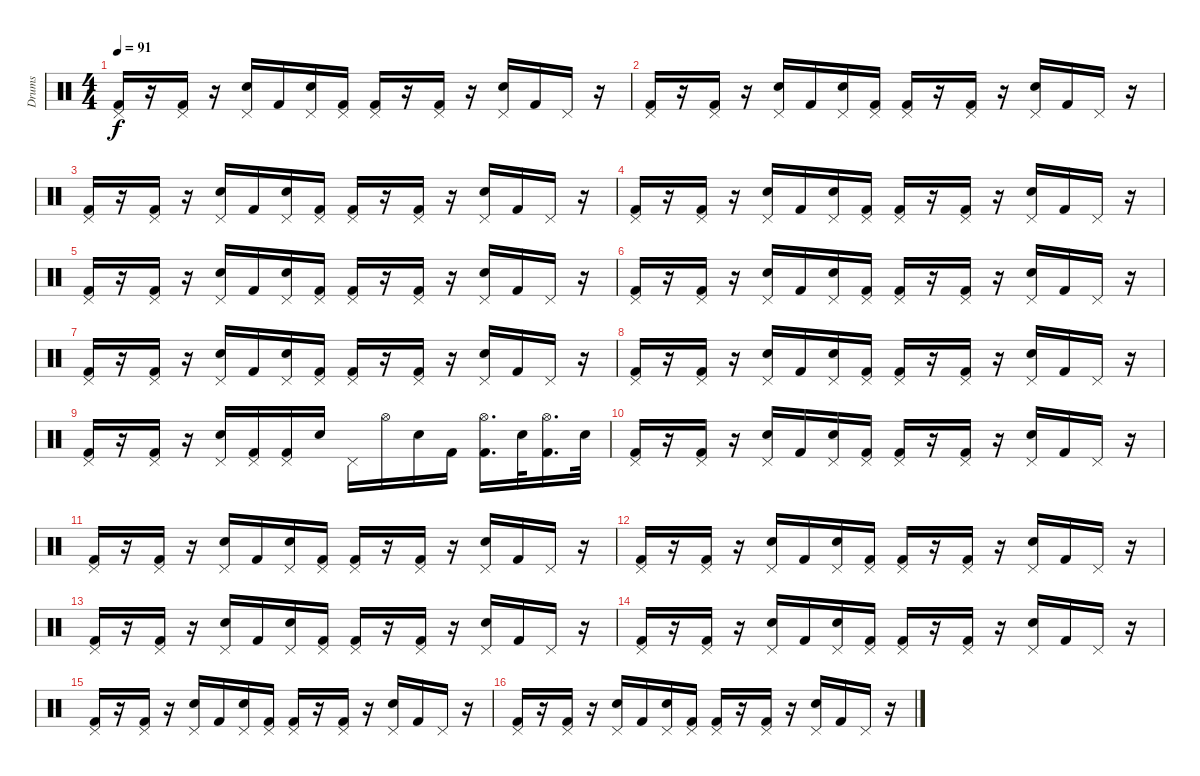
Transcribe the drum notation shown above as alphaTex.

\track ("Drums" "Drums") {instrument percussion}
\staff {score}
\articulation defaults
\ts (4 4)
\tempo 91
\clef neutral
\ks c
("Pedal Hi-Hat (hit)" "Kick (hit) 2").16{dy f} r.16 ("Pedal Hi-Hat (hit)" "Kick (hit) 2").16 r.16 ("Pedal Hi-Hat (hit)" "Snare (hit) 2").16 "Kick (hit) 2".16 ("Pedal Hi-Hat (hit)" "Snare (hit) 2").16 ("Pedal Hi-Hat (hit)" "Kick (hit) 2").16 ("Pedal Hi-Hat (hit)" "Kick (hit) 2").16 r.16 ("Pedal Hi-Hat (hit)" "Kick (hit) 2").16 r.16 ("Pedal Hi-Hat (hit)" "Snare (hit) 2").16 "Kick (hit) 2".16 "Pedal Hi-Hat (hit)".16 r.16 |
("Pedal Hi-Hat (hit)" "Kick (hit) 2").16 r.16 ("Pedal Hi-Hat (hit)" "Kick (hit) 2").16 r.16 ("Pedal Hi-Hat (hit)" "Snare (hit) 2").16 "Kick (hit) 2".16 ("Pedal Hi-Hat (hit)" "Snare (hit) 2").16 ("Pedal Hi-Hat (hit)" "Kick (hit) 2").16 ("Pedal Hi-Hat (hit)" "Kick (hit) 2").16 r.16 ("Pedal Hi-Hat (hit)" "Kick (hit) 2").16 r.16 ("Pedal Hi-Hat (hit)" "Snare (hit) 2").16 "Kick (hit) 2".16 "Pedal Hi-Hat (hit)".16 r.16 |
("Pedal Hi-Hat (hit)" "Kick (hit) 2").16 r.16 ("Pedal Hi-Hat (hit)" "Kick (hit) 2").16 r.16 ("Pedal Hi-Hat (hit)" "Snare (hit) 2").16 "Kick (hit) 2".16 ("Pedal Hi-Hat (hit)" "Snare (hit) 2").16 ("Pedal Hi-Hat (hit)" "Kick (hit) 2").16 ("Pedal Hi-Hat (hit)" "Kick (hit) 2").16 r.16 ("Pedal Hi-Hat (hit)" "Kick (hit) 2").16 r.16 ("Pedal Hi-Hat (hit)" "Snare (hit) 2").16 "Kick (hit) 2".16 "Pedal Hi-Hat (hit)".16 r.16 |
("Pedal Hi-Hat (hit)" "Kick (hit) 2").16 r.16 ("Pedal Hi-Hat (hit)" "Kick (hit) 2").16 r.16 ("Pedal Hi-Hat (hit)" "Snare (hit) 2").16 "Kick (hit) 2".16 ("Pedal Hi-Hat (hit)" "Snare (hit) 2").16 ("Pedal Hi-Hat (hit)" "Kick (hit) 2").16 ("Pedal Hi-Hat (hit)" "Kick (hit) 2").16 r.16 ("Pedal Hi-Hat (hit)" "Kick (hit) 2").16 r.16 ("Pedal Hi-Hat (hit)" "Snare (hit) 2").16 "Kick (hit) 2".16 "Pedal Hi-Hat (hit)".16 r.16 |
("Pedal Hi-Hat (hit)" "Kick (hit) 2").16 r.16 ("Pedal Hi-Hat (hit)" "Kick (hit) 2").16 r.16 ("Pedal Hi-Hat (hit)" "Snare (hit) 2").16 "Kick (hit) 2".16 ("Pedal Hi-Hat (hit)" "Snare (hit) 2").16 ("Pedal Hi-Hat (hit)" "Kick (hit) 2").16 ("Pedal Hi-Hat (hit)" "Kick (hit) 2").16 r.16 ("Pedal Hi-Hat (hit)" "Kick (hit) 2").16 r.16 ("Pedal Hi-Hat (hit)" "Snare (hit) 2").16 "Kick (hit) 2".16 "Pedal Hi-Hat (hit)".16 r.16 |
("Pedal Hi-Hat (hit)" "Kick (hit) 2").16 r.16 ("Pedal Hi-Hat (hit)" "Kick (hit) 2").16 r.16 ("Pedal Hi-Hat (hit)" "Snare (hit) 2").16 "Kick (hit) 2".16 ("Pedal Hi-Hat (hit)" "Snare (hit) 2").16 ("Pedal Hi-Hat (hit)" "Kick (hit) 2").16 ("Pedal Hi-Hat (hit)" "Kick (hit) 2").16 r.16 ("Pedal Hi-Hat (hit)" "Kick (hit) 2").16 r.16 ("Pedal Hi-Hat (hit)" "Snare (hit) 2").16 "Kick (hit) 2".16 "Pedal Hi-Hat (hit)".16 r.16 |
("Pedal Hi-Hat (hit)" "Kick (hit) 2").16 r.16 ("Pedal Hi-Hat (hit)" "Kick (hit) 2").16 r.16 ("Pedal Hi-Hat (hit)" "Snare (hit) 2").16 "Kick (hit) 2".16 ("Pedal Hi-Hat (hit)" "Snare (hit) 2").16 ("Pedal Hi-Hat (hit)" "Kick (hit) 2").16 ("Pedal Hi-Hat (hit)" "Kick (hit) 2").16 r.16 ("Pedal Hi-Hat (hit)" "Kick (hit) 2").16 r.16 ("Pedal Hi-Hat (hit)" "Snare (hit) 2").16 "Kick (hit) 2".16 "Pedal Hi-Hat (hit)".16 r.16 |
("Pedal Hi-Hat (hit)" "Kick (hit) 2").16 r.16 ("Pedal Hi-Hat (hit)" "Kick (hit) 2").16 r.16 ("Pedal Hi-Hat (hit)" "Snare (hit) 2").16 "Kick (hit) 2".16 ("Pedal Hi-Hat (hit)" "Snare (hit) 2").16 ("Pedal Hi-Hat (hit)" "Kick (hit) 2").16 ("Pedal Hi-Hat (hit)" "Kick (hit) 2").16 r.16 ("Pedal Hi-Hat (hit)" "Kick (hit) 2").16 r.16 ("Pedal Hi-Hat (hit)" "Snare (hit) 2").16 "Kick (hit) 2".16 "Pedal Hi-Hat (hit)".16 r.16 |
("Pedal Hi-Hat (hit)" "Kick (hit) 2").16 r.16 ("Pedal Hi-Hat (hit)" "Kick (hit) 2").16 r.16 ("Pedal Hi-Hat (hit)" "Snare (hit) 2").16 ("Pedal Hi-Hat (hit)" "Kick (hit) 2").16 ("Pedal Hi-Hat (hit)" "Kick (hit) 2").16 "Snare (hit) 2".16 "Pedal Hi-Hat (hit)".16 "Hi-Hat (open)".16 "Snare (hit) 2".16 "Kick (hit) 2".16 ("Hi-Hat (open)" "Kick (hit) 2").16{d} "Snare (hit) 2".32 ("Hi-Hat (open)" "Kick (hit) 2").16{d} "Snare (hit) 2".32 |
("Pedal Hi-Hat (hit)" "Kick (hit) 2").16 r.16 ("Pedal Hi-Hat (hit)" "Kick (hit) 2").16 r.16 ("Pedal Hi-Hat (hit)" "Snare (hit) 2").16 "Kick (hit) 2".16 ("Pedal Hi-Hat (hit)" "Snare (hit) 2").16 ("Pedal Hi-Hat (hit)" "Kick (hit) 2").16 ("Pedal Hi-Hat (hit)" "Kick (hit) 2").16 r.16 ("Pedal Hi-Hat (hit)" "Kick (hit) 2").16 r.16 ("Pedal Hi-Hat (hit)" "Snare (hit) 2").16 "Kick (hit) 2".16 "Pedal Hi-Hat (hit)".16 r.16 |
("Pedal Hi-Hat (hit)" "Kick (hit) 2").16 r.16 ("Pedal Hi-Hat (hit)" "Kick (hit) 2").16 r.16 ("Pedal Hi-Hat (hit)" "Snare (hit) 2").16 "Kick (hit) 2".16 ("Pedal Hi-Hat (hit)" "Snare (hit) 2").16 ("Pedal Hi-Hat (hit)" "Kick (hit) 2").16 ("Pedal Hi-Hat (hit)" "Kick (hit) 2").16 r.16 ("Pedal Hi-Hat (hit)" "Kick (hit) 2").16 r.16 ("Pedal Hi-Hat (hit)" "Snare (hit) 2").16 "Kick (hit) 2".16 "Pedal Hi-Hat (hit)".16 r.16 |
("Pedal Hi-Hat (hit)" "Kick (hit) 2").16 r.16 ("Pedal Hi-Hat (hit)" "Kick (hit) 2").16 r.16 ("Pedal Hi-Hat (hit)" "Snare (hit) 2").16 "Kick (hit) 2".16 ("Pedal Hi-Hat (hit)" "Snare (hit) 2").16 ("Pedal Hi-Hat (hit)" "Kick (hit) 2").16 ("Pedal Hi-Hat (hit)" "Kick (hit) 2").16 r.16 ("Pedal Hi-Hat (hit)" "Kick (hit) 2").16 r.16 ("Pedal Hi-Hat (hit)" "Snare (hit) 2").16 "Kick (hit) 2".16 "Pedal Hi-Hat (hit)".16 r.16 |
("Pedal Hi-Hat (hit)" "Kick (hit) 2").16 r.16 ("Pedal Hi-Hat (hit)" "Kick (hit) 2").16 r.16 ("Pedal Hi-Hat (hit)" "Snare (hit) 2").16 "Kick (hit) 2".16 ("Pedal Hi-Hat (hit)" "Snare (hit) 2").16 ("Pedal Hi-Hat (hit)" "Kick (hit) 2").16 ("Pedal Hi-Hat (hit)" "Kick (hit) 2").16 r.16 ("Pedal Hi-Hat (hit)" "Kick (hit) 2").16 r.16 ("Pedal Hi-Hat (hit)" "Snare (hit) 2").16 "Kick (hit) 2".16 "Pedal Hi-Hat (hit)".16 r.16 |
("Pedal Hi-Hat (hit)" "Kick (hit) 2").16 r.16 ("Pedal Hi-Hat (hit)" "Kick (hit) 2").16 r.16 ("Pedal Hi-Hat (hit)" "Snare (hit) 2").16 "Kick (hit) 2".16 ("Pedal Hi-Hat (hit)" "Snare (hit) 2").16 ("Pedal Hi-Hat (hit)" "Kick (hit) 2").16 ("Pedal Hi-Hat (hit)" "Kick (hit) 2").16 r.16 ("Pedal Hi-Hat (hit)" "Kick (hit) 2").16 r.16 ("Pedal Hi-Hat (hit)" "Snare (hit) 2").16 "Kick (hit) 2".16 "Pedal Hi-Hat (hit)".16 r.16 |
("Pedal Hi-Hat (hit)" "Kick (hit) 2").16 r.16 ("Pedal Hi-Hat (hit)" "Kick (hit) 2").16 r.16 ("Pedal Hi-Hat (hit)" "Snare (hit) 2").16 "Kick (hit) 2".16 ("Pedal Hi-Hat (hit)" "Snare (hit) 2").16 ("Pedal Hi-Hat (hit)" "Kick (hit) 2").16 ("Pedal Hi-Hat (hit)" "Kick (hit) 2").16 r.16 ("Pedal Hi-Hat (hit)" "Kick (hit) 2").16 r.16 ("Pedal Hi-Hat (hit)" "Snare (hit) 2").16 "Kick (hit) 2".16 "Pedal Hi-Hat (hit)".16 r.16 |
("Pedal Hi-Hat (hit)" "Kick (hit) 2").16 r.16 ("Pedal Hi-Hat (hit)" "Kick (hit) 2").16 r.16 ("Pedal Hi-Hat (hit)" "Snare (hit) 2").16 "Kick (hit) 2".16 ("Pedal Hi-Hat (hit)" "Snare (hit) 2").16 ("Pedal Hi-Hat (hit)" "Kick (hit) 2").16 ("Pedal Hi-Hat (hit)" "Kick (hit) 2").16 r.16 ("Pedal Hi-Hat (hit)" "Kick (hit) 2").16 r.16 ("Pedal Hi-Hat (hit)" "Snare (hit) 2").16 "Kick (hit) 2".16 "Pedal Hi-Hat (hit)".16 r.16
